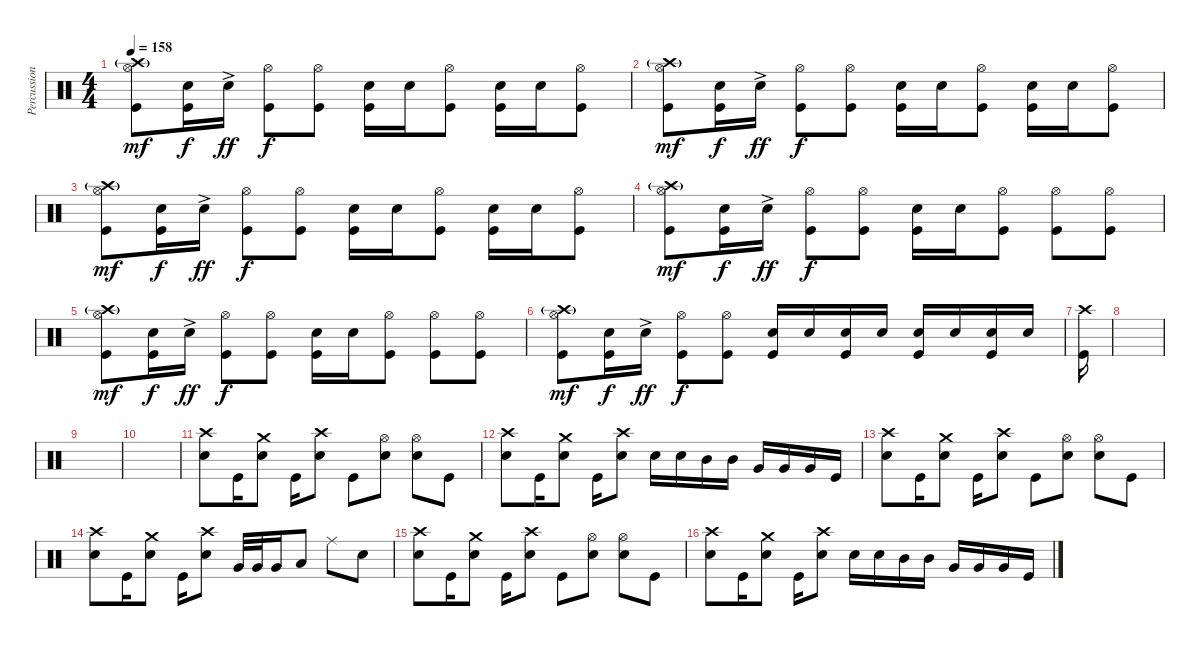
\track ("Percussion" "Percussion") {instrument percussion}
\staff {score}
\articulation defaults
\ts (4 4)
\tempo 158
\clef neutral
\ks c
("Crash high (hit)"{g} "Hi-Hat (open)" "Kick (hit)").8{dy mf} ("Snare (hit) 2" "Kick (hit)").16{dy f} "Snare (hit) 2"{ac}.16{dy ff} ("Hi-Hat (open)" "Kick (hit)").8{dy f} ("Hi-Hat (open)" "Kick (hit)").8 ("Snare (hit) 2" "Kick (hit)").16 "Snare (hit) 2".16 ("Hi-Hat (open)" "Kick (hit)").8 ("Snare (hit) 2" "Kick (hit)").16 "Snare (hit) 2".16 ("Hi-Hat (open)" "Kick (hit)").8 |
("Crash high (hit)"{g} "Hi-Hat (open)" "Kick (hit)").8{dy mf} ("Snare (hit) 2" "Kick (hit)").16{dy f} "Snare (hit) 2"{ac}.16{dy ff} ("Hi-Hat (open)" "Kick (hit)").8{dy f} ("Hi-Hat (open)" "Kick (hit)").8 ("Snare (hit) 2" "Kick (hit)").16 "Snare (hit) 2".16 ("Hi-Hat (open)" "Kick (hit)").8 ("Snare (hit) 2" "Kick (hit)").16 "Snare (hit) 2".16 ("Hi-Hat (open)" "Kick (hit)").8 |
("Crash high (hit)"{g} "Hi-Hat (open)" "Kick (hit)").8{dy mf} ("Snare (hit) 2" "Kick (hit)").16{dy f} "Snare (hit) 2"{ac}.16{dy ff} ("Hi-Hat (open)" "Kick (hit)").8{dy f} ("Hi-Hat (open)" "Kick (hit)").8 ("Snare (hit) 2" "Kick (hit)").16 "Snare (hit) 2".16 ("Hi-Hat (open)" "Kick (hit)").8 ("Snare (hit) 2" "Kick (hit)").16 "Snare (hit) 2".16 ("Hi-Hat (open)" "Kick (hit)").8 |
("Crash high (hit)"{g} "Hi-Hat (open)" "Kick (hit)").8{dy mf} ("Snare (hit) 2" "Kick (hit)").16{dy f} "Snare (hit) 2"{ac}.16{dy ff} ("Hi-Hat (open)" "Kick (hit)").8{dy f} ("Hi-Hat (open)" "Kick (hit)").8 ("Snare (hit) 2" "Kick (hit)").16 "Snare (hit) 2".16 ("Hi-Hat (open)" "Kick (hit)").8 ("Hi-Hat (open)" "Kick (hit)").8 ("Hi-Hat (open)" "Kick (hit)").8 |
("Crash high (hit)"{g} "Hi-Hat (open)" "Kick (hit)").8{dy mf} ("Snare (hit) 2" "Kick (hit)").16{dy f} "Snare (hit) 2"{ac}.16{dy ff} ("Hi-Hat (open)" "Kick (hit)").8{dy f} ("Hi-Hat (open)" "Kick (hit)").8 ("Snare (hit) 2" "Kick (hit)").16 "Snare (hit) 2".16 ("Hi-Hat (open)" "Kick (hit)").8 ("Hi-Hat (open)" "Kick (hit)").8 ("Hi-Hat (open)" "Kick (hit)").8 |
("Crash high (hit)"{g} "Hi-Hat (open)" "Kick (hit)").8{dy mf} ("Snare (hit) 2" "Kick (hit)").16{dy f} "Snare (hit) 2"{ac}.16{dy ff} ("Hi-Hat (open)" "Kick (hit)").8{dy f} ("Hi-Hat (open)" "Kick (hit)").8 ("Snare (hit) 2" "Kick (hit)").16 "Snare (hit) 2".16 ("Snare (hit) 2" "Kick (hit)").16 "Snare (hit) 2".16 ("Snare (hit) 2" "Kick (hit)").16 "Snare (hit) 2".16 ("Snare (hit) 2" "Kick (hit)").16 "Snare (hit) 2".16 |
("Crash high (hit)" "Kick (hit)").16 |
|
|
|
("Crash high (hit)" "Snare (hit) 2").8 "Kick (hit)".16 ("Crash medium (hit)" "Snare (hit) 2").8 "Kick (hit)".16 ("Crash high (hit)" "Snare (hit) 2").8 "Kick (hit)".8 ("Hi-Hat (open)" "Snare (hit) 2").8 ("Hi-Hat (open)" "Snare (hit) 2").8 "Kick (hit)".8 |
("Crash high (hit)" "Snare (hit) 2").8 "Kick (hit)".16 ("Crash medium (hit)" "Snare (hit) 2").8 "Kick (hit)".16 ("Crash high (hit)" "Snare (hit) 2").8 "Snare (hit) 2".16 "Snare (hit) 2".16 "Mid Tom (hit)".16 "Mid Tom (hit)".16 "Very Low Tom (hit)".16 "Very Low Tom (hit)".16 "Very Low Tom (hit)".16 "Kick (hit)".16 |
("Crash high (hit)" "Snare (hit) 2").8 "Kick (hit)".16 ("Crash medium (hit)" "Snare (hit) 2").8 "Kick (hit)".16 ("Crash high (hit)" "Snare (hit) 2").8 "Kick (hit)".8 ("Hi-Hat (open)" "Snare (hit) 2").8 ("Hi-Hat (open)" "Snare (hit) 2").8 "Kick (hit)".8 |
("Crash high (hit)" "Snare (hit) 2").8 "Kick (hit)".16 ("Crash medium (hit)" "Snare (hit) 2").8 "Kick (hit)".16 ("Crash high (hit)" "Snare (hit) 2").8 "Very Low Tom (hit)".32 "Very Low Tom (hit)".32 "Very Low Tom (hit)".16 "Low Floor Tom (hit)".8 "Ride (middle)".8 "Snare (hit) 2".8 |
("Crash high (hit)" "Snare (hit) 2").8 "Kick (hit)".16 ("Crash medium (hit)" "Snare (hit) 2").8 "Kick (hit)".16 ("Crash high (hit)" "Snare (hit) 2").8 "Kick (hit)".8 ("Hi-Hat (open)" "Snare (hit) 2").8 ("Hi-Hat (open)" "Snare (hit) 2").8 "Kick (hit)".8 |
("Crash high (hit)" "Snare (hit) 2").8 "Kick (hit)".16 ("Crash medium (hit)" "Snare (hit) 2").8 "Kick (hit)".16 ("Crash high (hit)" "Snare (hit) 2").8 "Snare (hit) 2".16 "Snare (hit) 2".16 "Mid Tom (hit)".16 "Mid Tom (hit)".16 "Very Low Tom (hit)".16 "Very Low Tom (hit)".16 "Very Low Tom (hit)".16 "Kick (hit)".16
